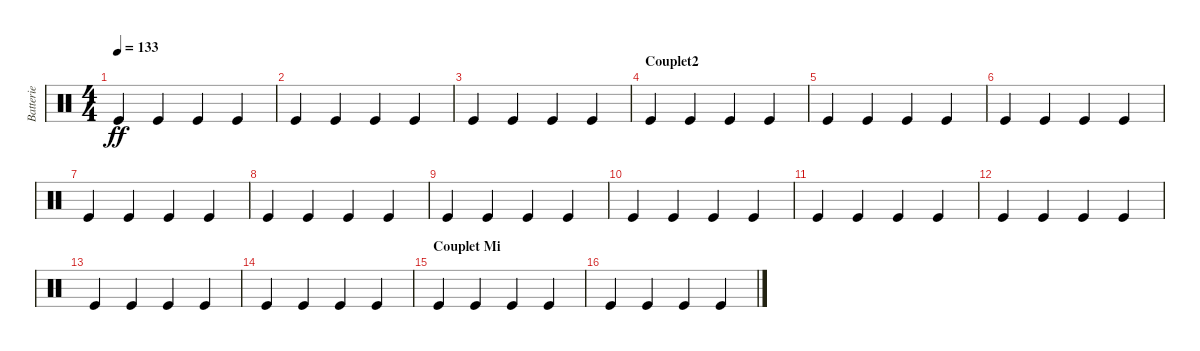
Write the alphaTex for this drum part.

\track ("Batterie" "Batterie") {instrument percussion}
\staff {score}
\articulation defaults
\ts (4 4)
\tempo 133
\clef neutral
\ks c "Kick (hit)".4{dy ff} "Kick (hit)".4 "Kick (hit)".4 "Kick (hit)".4
|
"Kick (hit)".4 "Kick (hit)".4 "Kick (hit)".4 "Kick (hit)".4 |
"Kick (hit)".4 "Kick (hit)".4 "Kick (hit)".4 "Kick (hit)".4 |
\section ("" "Couplet2")
"Kick (hit)".4 "Kick (hit)".4 "Kick (hit)".4 "Kick (hit)".4 |
"Kick (hit)".4 "Kick (hit)".4 "Kick (hit)".4 "Kick (hit)".4 |
"Kick (hit)".4 "Kick (hit)".4 "Kick (hit)".4 "Kick (hit)".4 |
"Kick (hit)".4 "Kick (hit)".4 "Kick (hit)".4 "Kick (hit)".4 |
"Kick (hit)".4 "Kick (hit)".4 "Kick (hit)".4 "Kick (hit)".4 |
"Kick (hit)".4 "Kick (hit)".4 "Kick (hit)".4 "Kick (hit)".4 |
"Kick (hit)".4 "Kick (hit)".4 "Kick (hit)".4 "Kick (hit)".4 |
"Kick (hit)".4 "Kick (hit)".4 "Kick (hit)".4 "Kick (hit)".4 |
"Kick (hit)".4 "Kick (hit)".4 "Kick (hit)".4 "Kick (hit)".4 |
"Kick (hit)".4 "Kick (hit)".4 "Kick (hit)".4 "Kick (hit)".4 |
"Kick (hit)".4 "Kick (hit)".4 "Kick (hit)".4 "Kick (hit)".4 |
\section ("" "Couplet Mi")
"Kick (hit)".4 "Kick (hit)".4 "Kick (hit)".4 "Kick (hit)".4 |
"Kick (hit)".4 "Kick (hit)".4 "Kick (hit)".4 "Kick (hit)".4
